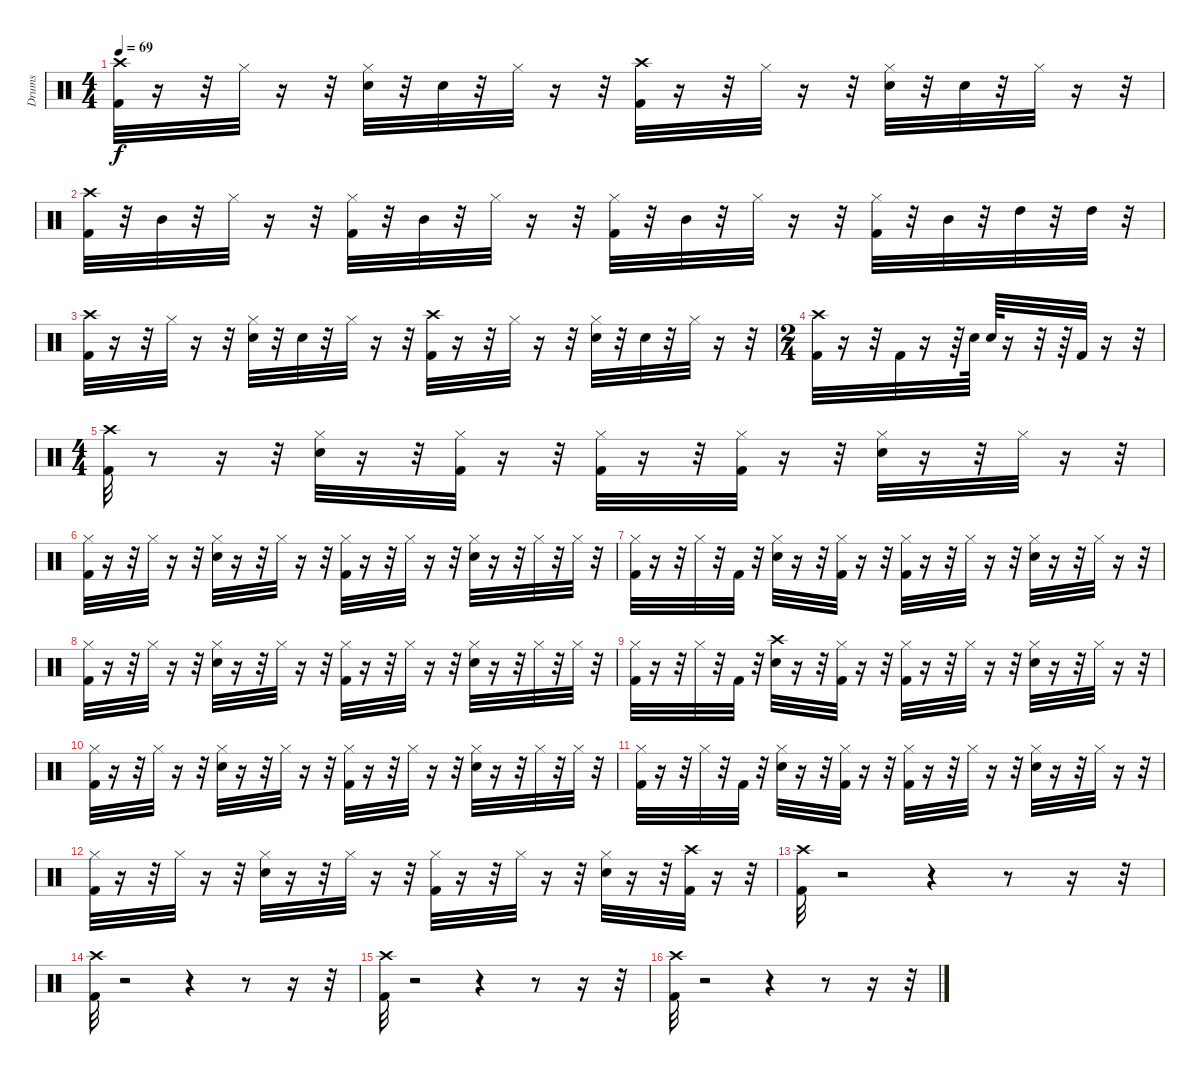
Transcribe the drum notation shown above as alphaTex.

\track ("Drums" "Drums") {instrument percussion}
\staff {score}
\articulation defaults
\ts (4 4)
\tempo 69
\clef neutral
\ks c
("Kick (hit) 2" "Crash high (hit)").32{dy f} r.16 r.32 "Hi-Hat (closed)".32 r.16 r.32 ("Snare (hit) 2" "Hi-Hat (closed)").32 r.32 "Snare (hit) 2".32 r.32 "Hi-Hat (closed)".32 r.16 r.32 ("Crash high (hit)" "Kick (hit) 2").32 r.16 r.32 "Hi-Hat (closed)".32 r.16 r.32 ("Snare (hit) 2" "Hi-Hat (closed)").32 r.32 "Snare (hit) 2".32 r.32 "Hi-Hat (closed)".32 r.16 r.32 |
("Kick (hit) 2" "Crash high (hit)").32 r.32 "Mid Tom (hit)".32 r.32 "Hi-Hat (closed)".32 r.16 r.32 ("Hi-Hat (closed)" "Kick (hit) 2").32 r.32 "Mid Tom (hit)".32 r.32 "Hi-Hat (closed)".32 r.16 r.32 ("Hi-Hat (closed)" "Kick (hit) 2").32 r.32 "Mid Tom (hit)".32 r.32 "Hi-Hat (closed)".32 r.16 r.32 ("Hi-Hat (closed)" "Kick (hit) 2").32 r.32 "Mid Tom (hit)".32 r.32 "High Tom (hit)".32 r.32 "High Tom (hit)".32 r.32 |
("Kick (hit) 2" "Crash high (hit)").32 r.16 r.32 "Hi-Hat (closed)".32 r.16 r.32 ("Snare (hit) 2" "Hi-Hat (closed)").32 r.32 "Snare (hit) 2".32 r.32 "Hi-Hat (closed)".32 r.16 r.32 ("Crash high (hit)" "Kick (hit) 2").32 r.16 r.32 "Hi-Hat (closed)".32 r.16 r.32 ("Snare (hit) 2" "Hi-Hat (closed)").32 r.32 "Snare (hit) 2".32 r.32 "Hi-Hat (closed)".32 r.16 r.32 |
\ts (2 4)
("Kick (hit) 2" "Crash high (hit)").32 r.16 r.32 "Kick (hit) 2".32 r.16 r.64 "Snare (hit) 2".64 "Snare (hit) 2".64 r.16 r.32 r.64 "Kick (hit) 2".32 r.16 r.32 |
\ts (4 4)
("Kick (hit) 2" "Crash high (hit)").32 r.8 r.16 r.32 ("Hi-Hat (closed)" "Snare (hit) 2").32 r.16 r.32 ("Hi-Hat (closed)" "Kick (hit) 2").32 r.16 r.32 ("Hi-Hat (closed)" "Kick (hit) 2").32 r.16 r.32 ("Hi-Hat (closed)" "Kick (hit) 2").32 r.16 r.32 ("Hi-Hat (closed)" "Snare (hit) 2").32 r.16 r.32 "Hi-Hat (closed)".32 r.16 r.32 |
("Hi-Hat (closed)" "Kick (hit) 2").32 r.16 r.32 "Hi-Hat (closed)".32 r.16 r.32 ("Snare (hit) 2" "Hi-Hat (closed)").32 r.16 r.32 "Hi-Hat (closed)".32 r.16 r.32 ("Hi-Hat (closed)" "Kick (hit) 2").32 r.16 r.32 "Hi-Hat (closed)".32 r.16 r.32 ("Hi-Hat (closed)" "Snare (hit) 2").32 r.16 r.32 "Hi-Hat (closed)".32 r.32 "Hi-Hat (closed)".32 r.32 |
("Hi-Hat (closed)" "Kick (hit) 2").32 r.16 r.32 "Hi-Hat (closed)".32 r.32 "Kick (hit) 2".32 r.32 ("Snare (hit) 2" "Hi-Hat (closed)").32 r.16 r.32 ("Kick (hit) 2" "Hi-Hat (closed)").32 r.16 r.32 ("Hi-Hat (closed)" "Kick (hit) 2").32 r.16 r.32 "Hi-Hat (closed)".32 r.16 r.32 ("Snare (hit) 2" "Hi-Hat (closed)").32 r.16 r.32 "Hi-Hat (closed)".32 r.16 r.32 |
("Hi-Hat (closed)" "Kick (hit) 2").32 r.16 r.32 "Hi-Hat (closed)".32 r.16 r.32 ("Snare (hit) 2" "Hi-Hat (closed)").32 r.16 r.32 "Hi-Hat (closed)".32 r.16 r.32 ("Kick (hit) 2" "Hi-Hat (closed)").32 r.16 r.32 "Hi-Hat (closed)".32 r.16 r.32 ("Hi-Hat (closed)" "Snare (hit) 2").32 r.16 r.32 "Hi-Hat (closed)".32 r.32 "Hi-Hat (closed)".32 r.32 |
("Hi-Hat (closed)" "Kick (hit) 2").32 r.16 r.32 "Hi-Hat (closed)".32 r.32 "Kick (hit) 2".32 r.32 ("Crash high (hit)" "Snare (hit) 2").32 r.16 r.32 ("Hi-Hat (closed)" "Kick (hit) 2").32 r.16 r.32 ("Hi-Hat (closed)" "Kick (hit) 2").32 r.16 r.32 "Hi-Hat (closed)".32 r.16 r.32 ("Snare (hit) 2" "Hi-Hat (closed)").32 r.16 r.32 "Hi-Hat (closed)".32 r.16 r.32 |
("Hi-Hat (closed)" "Kick (hit) 2").32 r.16 r.32 "Hi-Hat (closed)".32 r.16 r.32 ("Snare (hit) 2" "Hi-Hat (closed)").32 r.16 r.32 "Hi-Hat (closed)".32 r.16 r.32 ("Kick (hit) 2" "Hi-Hat (closed)").32 r.16 r.32 "Hi-Hat (closed)".32 r.16 r.32 ("Hi-Hat (closed)" "Snare (hit) 2").32 r.16 r.32 "Hi-Hat (closed)".32 r.32 "Hi-Hat (closed)".32 r.32 |
("Hi-Hat (closed)" "Kick (hit) 2").32 r.16 r.32 "Hi-Hat (closed)".32 r.32 "Kick (hit) 2".32 r.32 ("Snare (hit) 2" "Hi-Hat (closed)").32 r.16 r.32 ("Kick (hit) 2" "Hi-Hat (closed)").32 r.16 r.32 ("Hi-Hat (closed)" "Kick (hit) 2").32 r.16 r.32 "Hi-Hat (closed)".32 r.16 r.32 ("Snare (hit) 2" "Hi-Hat (closed)").32 r.16 r.32 "Hi-Hat (closed)".32 r.16 r.32 |
("Hi-Hat (closed)" "Kick (hit) 2").32 r.16 r.32 "Hi-Hat (closed)".32 r.16 r.32 ("Snare (hit) 2" "Hi-Hat (closed)").32 r.16 r.32 "Hi-Hat (closed)".32 r.16 r.32 ("Hi-Hat (closed)" "Kick (hit) 2").32 r.16 r.32 "Hi-Hat (closed)".32 r.16 r.32 ("Snare (hit) 2" "Hi-Hat (closed)").32 r.16 r.32 ("Crash high (hit)" "Kick (hit) 2").32 r.16 r.32 |
("Kick (hit) 2" "Crash high (hit)").32 r.2 r.4 r.8 r.16 r.32 |
("Kick (hit) 2" "Crash high (hit)").32 r.2 r.4 r.8 r.16 r.32 |
("Kick (hit) 2" "Crash high (hit)").32 r.2 r.4 r.8 r.16 r.32 |
("Kick (hit) 2" "Crash high (hit)").32 r.2 r.4 r.8 r.16 r.32
